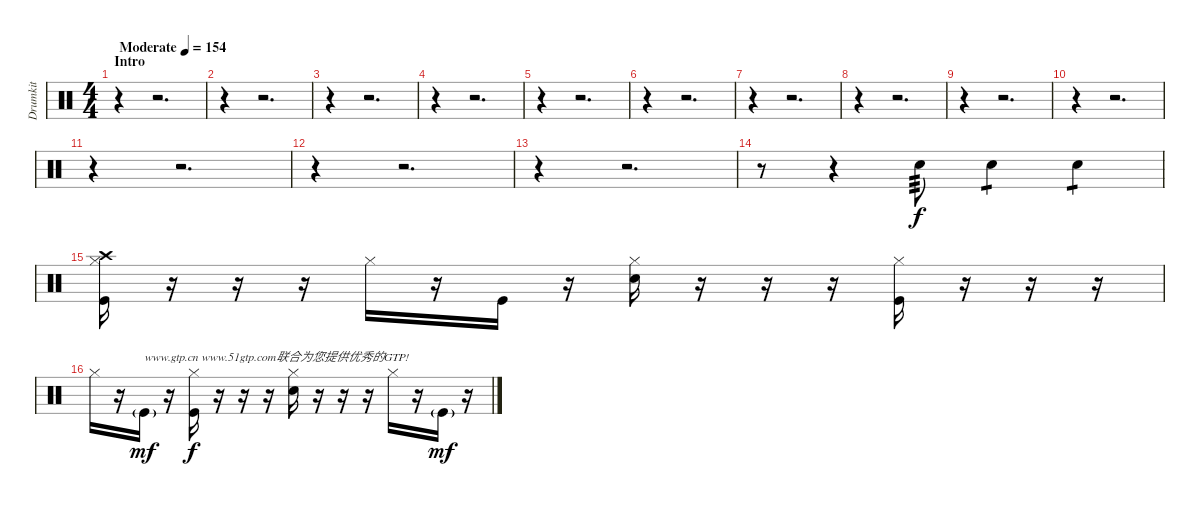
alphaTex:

\track ("Drumkit" "Drumkit") {instrument percussion}
\staff {score}
\articulation defaults
\ts (4 4)
\section ("" "Intro")
\tempo (154 "Moderate")
\clef neutral
\ks c
r.4{dy f} r.2{d} |
r.4 r.2{d} |
r.4 r.2{d} |
r.4 r.2{d} |
r.4 r.2{d} |
r.4 r.2{d} |
r.4 r.2{d} |
r.4 r.2{d} |
r.4 r.2{d} |
r.4 r.2{d} |
r.4 r.2{d} |
r.4 r.2{d} |
r.4 r.2{d} |
r.8 r.4 "Snare (hit) 2".8{tp 3} "Snare (hit) 2".4{tp 1} "Snare (hit) 2".4{tp 1} |
("Crash high (hit)" "Hi-Hat (closed)" "Kick (hit)").16 r.16 r.16 r.16 "Hi-Hat (closed)".16 r.16 "Kick (hit)".16 r.16 ("Hi-Hat (closed)" "Snare (hit) 2").16 r.16 r.16 r.16 ("Hi-Hat (closed)" "Kick (hit)").16 r.16 r.16 r.16 |
"Hi-Hat (closed)".16 r.16 "Kick (hit)"{g}.16{txt "www.gtp.cn www.51gtp.com联合为您提供优秀的GTP!" dy mf} r.16 ("Hi-Hat (closed)" "Kick (hit)").16{dy f} r.16 r.16 r.16 ("Hi-Hat (closed)" "Snare (hit) 2").16 r.16 r.16 r.16 "Hi-Hat (closed)".16 r.16 "Kick (hit)"{g}.16{dy mf} r.16
